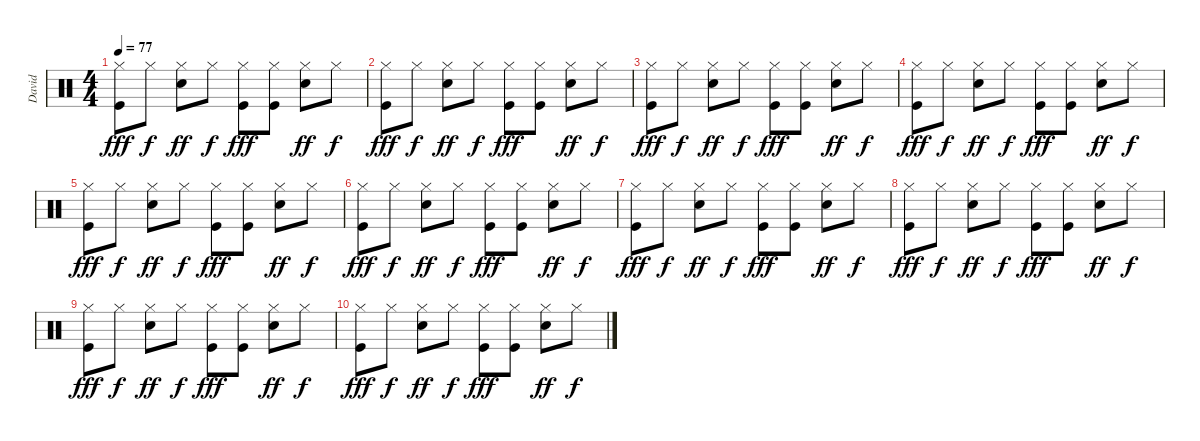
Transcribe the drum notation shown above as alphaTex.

\track ("David" "David") {instrument percussion}
\staff {score}
\articulation defaults
\ts (4 4)
\tempo 77
\clef neutral
\ks c
("Hi-Hat (closed)" "Kick (hit)").8{dy fff} "Hi-Hat (closed)".8{dy f} ("Hi-Hat (closed)" "Electric Snare (hit)").8{dy ff} "Hi-Hat (closed)".8{dy f} ("Hi-Hat (closed)" "Kick (hit)").8{dy fff} ("Hi-Hat (closed)" "Kick (hit)").8 ("Hi-Hat (closed)" "Electric Snare (hit)").8{dy ff} "Hi-Hat (closed)".8{dy f} |
("Hi-Hat (closed)" "Kick (hit)").8{dy fff} "Hi-Hat (closed)".8{dy f} ("Hi-Hat (closed)" "Electric Snare (hit)").8{dy ff} "Hi-Hat (closed)".8{dy f} ("Hi-Hat (closed)" "Kick (hit)").8{dy fff} ("Hi-Hat (closed)" "Kick (hit)").8 ("Hi-Hat (closed)" "Electric Snare (hit)").8{dy ff} "Hi-Hat (closed)".8{dy f} |
("Hi-Hat (closed)" "Kick (hit)").8{dy fff} "Hi-Hat (closed)".8{dy f} ("Hi-Hat (closed)" "Electric Snare (hit)").8{dy ff} "Hi-Hat (closed)".8{dy f} ("Hi-Hat (closed)" "Kick (hit)").8{dy fff} ("Hi-Hat (closed)" "Kick (hit)").8 ("Hi-Hat (closed)" "Electric Snare (hit)").8{dy ff} "Hi-Hat (closed)".8{dy f} |
("Hi-Hat (closed)" "Kick (hit)").8{dy fff} "Hi-Hat (closed)".8{dy f} ("Hi-Hat (closed)" "Electric Snare (hit)").8{dy ff} "Hi-Hat (closed)".8{dy f} ("Hi-Hat (closed)" "Kick (hit)").8{dy fff} ("Hi-Hat (closed)" "Kick (hit)").8 ("Hi-Hat (closed)" "Electric Snare (hit)").8{dy ff} "Hi-Hat (closed)".8{dy f} |
("Hi-Hat (closed)" "Kick (hit)").8{dy fff} "Hi-Hat (closed)".8{dy f} ("Hi-Hat (closed)" "Electric Snare (hit)").8{dy ff} "Hi-Hat (closed)".8{dy f} ("Hi-Hat (closed)" "Kick (hit)").8{dy fff} ("Hi-Hat (closed)" "Kick (hit)").8 ("Hi-Hat (closed)" "Electric Snare (hit)").8{dy ff} "Hi-Hat (closed)".8{dy f} |
("Hi-Hat (closed)" "Kick (hit)").8{dy fff} "Hi-Hat (closed)".8{dy f} ("Hi-Hat (closed)" "Electric Snare (hit)").8{dy ff} "Hi-Hat (closed)".8{dy f} ("Hi-Hat (closed)" "Kick (hit)").8{dy fff} ("Hi-Hat (closed)" "Kick (hit)").8 ("Hi-Hat (closed)" "Electric Snare (hit)").8{dy ff} "Hi-Hat (closed)".8{dy f} |
("Hi-Hat (closed)" "Kick (hit)").8{dy fff} "Hi-Hat (closed)".8{dy f} ("Hi-Hat (closed)" "Electric Snare (hit)").8{dy ff} "Hi-Hat (closed)".8{dy f} ("Hi-Hat (closed)" "Kick (hit)").8{dy fff} ("Hi-Hat (closed)" "Kick (hit)").8 ("Hi-Hat (closed)" "Electric Snare (hit)").8{dy ff} "Hi-Hat (closed)".8{dy f} |
("Hi-Hat (closed)" "Kick (hit)").8{dy fff} "Hi-Hat (closed)".8{dy f} ("Hi-Hat (closed)" "Electric Snare (hit)").8{dy ff} "Hi-Hat (closed)".8{dy f} ("Hi-Hat (closed)" "Kick (hit)").8{dy fff} ("Hi-Hat (closed)" "Kick (hit)").8 ("Hi-Hat (closed)" "Electric Snare (hit)").8{dy ff} "Hi-Hat (closed)".8{dy f} |
("Hi-Hat (closed)" "Kick (hit)").8{dy fff} "Hi-Hat (closed)".8{dy f} ("Hi-Hat (closed)" "Electric Snare (hit)").8{dy ff} "Hi-Hat (closed)".8{dy f} ("Hi-Hat (closed)" "Kick (hit)").8{dy fff} ("Hi-Hat (closed)" "Kick (hit)").8 ("Hi-Hat (closed)" "Electric Snare (hit)").8{dy ff} "Hi-Hat (closed)".8{dy f} |
("Hi-Hat (closed)" "Kick (hit)").8{dy fff} "Hi-Hat (closed)".8{dy f} ("Hi-Hat (closed)" "Electric Snare (hit)").8{dy ff} "Hi-Hat (closed)".8{dy f} ("Hi-Hat (closed)" "Kick (hit)").8{dy fff} ("Hi-Hat (closed)" "Kick (hit)").8 ("Hi-Hat (closed)" "Electric Snare (hit)").8{dy ff} "Hi-Hat (closed)".8{dy f}
